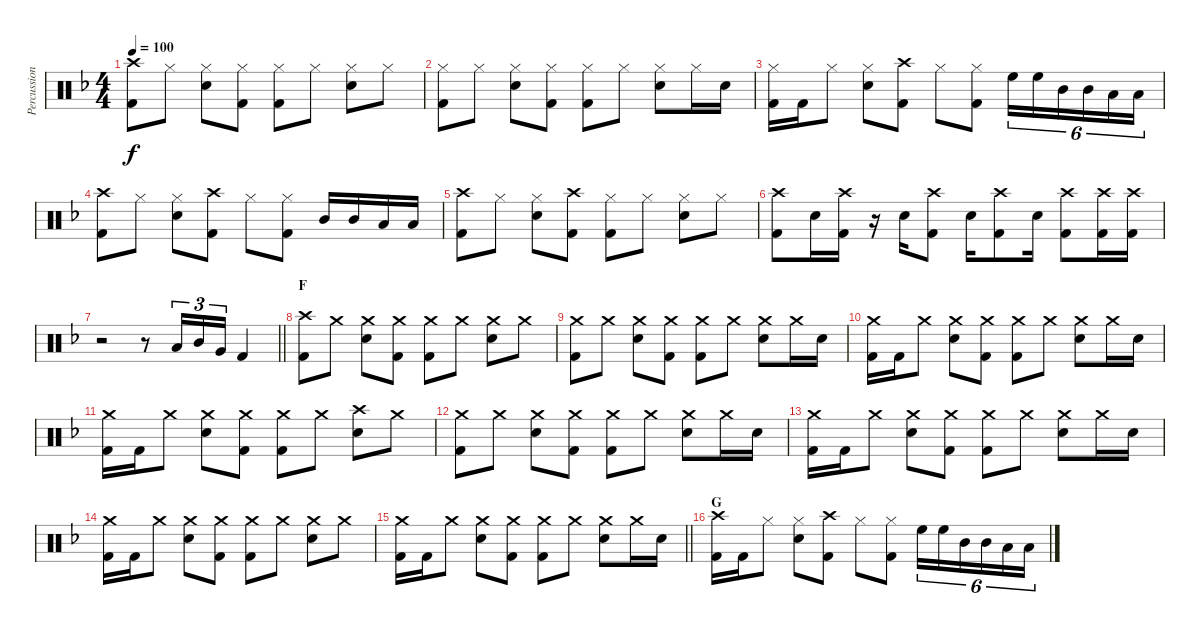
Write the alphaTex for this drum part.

\track ("Percussion" "Percussion") {instrument percussion}
\staff {score}
\articulation defaults
\ts (4 4)
\tempo 100
\clef neutral
\ks f
("Crash high (hit)" "Kick (hit) 2").8{dy f} "Hi-Hat (closed)".8 ("Hi-Hat (closed)" "Snare (hit) 2").8 ("Hi-Hat (closed)" "Kick (hit) 2").8 ("Hi-Hat (closed)" "Kick (hit) 2").8 "Hi-Hat (closed)".8 ("Hi-Hat (closed)" "Snare (hit) 2").8 "Hi-Hat (closed)".8 |
("Hi-Hat (closed)" "Kick (hit) 2").8 "Hi-Hat (closed)".8 ("Hi-Hat (closed)" "Snare (hit) 2").8 ("Hi-Hat (closed)" "Kick (hit) 2").8 ("Hi-Hat (closed)" "Kick (hit) 2").8 "Hi-Hat (closed)".8 ("Hi-Hat (closed)" "Snare (hit) 2").8 "Hi-Hat (closed)".16 "Snare (hit) 2".16 |
("Hi-Hat (closed)" "Kick (hit) 2").16 "Kick (hit) 2".16 "Hi-Hat (closed)".8 ("Hi-Hat (closed)" "Snare (hit) 2").8 ("Crash high (hit)" "Kick (hit) 2").8 "Hi-Hat (closed)".8 ("Hi-Hat (closed)" "Kick (hit) 2").8 "High Floor Tom (hit)".16{tu (6 4)} "High Floor Tom (hit)".16{tu (6 4)} "Mid Tom (hit)".16{tu (6 4)} "Mid Tom (hit)".16{tu (6 4)} "Low Tom (hit)".16{tu (6 4)} "Low Tom (hit)".16{tu (6 4)} |
("Crash high (hit)" "Kick (hit) 2").8 "Hi-Hat (closed)".8 ("Hi-Hat (closed)" "Snare (hit) 2").8 ("Crash high (hit)" "Kick (hit) 2").8 "Hi-Hat (closed)".8 ("Hi-Hat (closed)" "Kick (hit) 2").8 "Mid Tom (hit)".16 "Mid Tom (hit)".16 "Low Tom (hit)".16 "Low Tom (hit)".16 |
("Crash high (hit)" "Kick (hit) 2").8 "Hi-Hat (closed)".8 ("Hi-Hat (closed)" "Snare (hit) 2").8 ("Crash high (hit)" "Kick (hit) 2").8 ("Hi-Hat (closed)" "Kick (hit) 2").8 "Hi-Hat (closed)".8 ("Hi-Hat (closed)" "Snare (hit) 2").8 "Hi-Hat (closed)".8 |
("Crash high (hit)" "Kick (hit) 2").8 "Snare (hit) 2".16 ("Crash high (hit)" "Kick (hit) 2").16 r.16 "Snare (hit) 2".16 ("Crash high (hit)" "Kick (hit) 2").8 "Snare (hit) 2".16 ("Crash high (hit)" "Kick (hit) 2").8 "Snare (hit) 2".16 ("Crash high (hit)" "Kick (hit) 2").8 ("Crash high (hit)" "Kick (hit) 2").16 ("Crash high (hit)" "Kick (hit) 2").16 |
\barLineRight lightlight
r.2 r.8 "Low Tom (hit)".16{tu (3 2)} "Mid Tom (hit)".16{tu (3 2)} "Very Low Tom (hit)".16{tu (3 2)} "Kick (hit) 2".4 |
\section ("" "F")
("Crash high (hit)" "Kick (hit) 2").8 "Crash medium (hit)".8 ("Crash medium (hit)" "Snare (hit) 2").8 ("Crash medium (hit)" "Kick (hit) 2").8 ("Crash medium (hit)" "Kick (hit) 2").8 "Crash medium (hit)".8 ("Crash medium (hit)" "Snare (hit) 2").8 "Crash medium (hit)".8 |
("Crash medium (hit)" "Kick (hit) 2").8 "Crash medium (hit)".8 ("Crash medium (hit)" "Snare (hit) 2").8 ("Crash medium (hit)" "Kick (hit) 2").8 ("Crash medium (hit)" "Kick (hit) 2").8 "Crash medium (hit)".8 ("Crash medium (hit)" "Snare (hit) 2").8 "Crash medium (hit)".16 "Snare (hit) 2".16 |
("Crash medium (hit)" "Kick (hit) 2").16 "Kick (hit) 2".16 "Crash medium (hit)".8 ("Crash medium (hit)" "Snare (hit) 2").8 ("Crash medium (hit)" "Kick (hit) 2").8 ("Crash medium (hit)" "Kick (hit) 2").8 "Crash medium (hit)".8 ("Crash medium (hit)" "Snare (hit) 2").8 "Crash medium (hit)".16 "Snare (hit) 2".16 |
("Crash medium (hit)" "Kick (hit) 2").16 "Kick (hit) 2".16 "Crash medium (hit)".8 ("Crash medium (hit)" "Snare (hit) 2").8 ("Crash medium (hit)" "Kick (hit) 2").8 ("Crash medium (hit)" "Kick (hit) 2").8 "Crash medium (hit)".8 ("Crash high (hit)" "Snare (hit) 2").8 "Crash medium (hit)".8 |
("Crash medium (hit)" "Kick (hit) 2").8 "Crash medium (hit)".8 ("Crash medium (hit)" "Snare (hit) 2").8 ("Crash medium (hit)" "Kick (hit) 2").8 ("Crash medium (hit)" "Kick (hit) 2").8 "Crash medium (hit)".8 ("Crash medium (hit)" "Snare (hit) 2").8 "Crash medium (hit)".16 "Snare (hit) 2".16 |
("Crash medium (hit)" "Kick (hit) 2").16 "Kick (hit) 2".16 "Crash medium (hit)".8 ("Crash medium (hit)" "Snare (hit) 2").8 ("Crash medium (hit)" "Kick (hit) 2").8 ("Crash medium (hit)" "Kick (hit) 2").8 "Crash medium (hit)".8 ("Crash medium (hit)" "Snare (hit) 2").8 "Crash medium (hit)".16 "Snare (hit) 2".16 |
("Crash medium (hit)" "Kick (hit) 2").16 "Kick (hit) 2".16 "Crash medium (hit)".8 ("Crash medium (hit)" "Snare (hit) 2").8 ("Crash medium (hit)" "Kick (hit) 2").8 ("Crash medium (hit)" "Kick (hit) 2").8 "Crash medium (hit)".8 ("Crash medium (hit)" "Snare (hit) 2").8 "Crash medium (hit)".8 |
\barLineRight lightlight
("Crash medium (hit)" "Kick (hit) 2").16 "Kick (hit) 2".16 "Crash medium (hit)".8 ("Crash medium (hit)" "Snare (hit) 2").8 ("Crash medium (hit)" "Kick (hit) 2").8 ("Crash medium (hit)" "Kick (hit) 2").8 "Crash medium (hit)".8 ("Crash medium (hit)" "Snare (hit) 2").8 "Crash medium (hit)".16 "Snare (hit) 2".16 |
\section ("" "G")
("Crash high (hit)" "Kick (hit) 2").16 "Kick (hit) 2".16 "Hi-Hat (closed)".8 ("Hi-Hat (closed)" "Snare (hit) 2").8 ("Crash high (hit)" "Kick (hit) 2").8 "Hi-Hat (closed)".8 ("Hi-Hat (closed)" "Kick (hit) 2").8 "High Floor Tom (hit)".16{tu (6 4)} "High Floor Tom (hit)".16{tu (6 4)} "Mid Tom (hit)".16{tu (6 4)} "Mid Tom (hit)".16{tu (6 4)} "Low Tom (hit)".16{tu (6 4)} "Low Tom (hit)".16{tu (6 4)}
